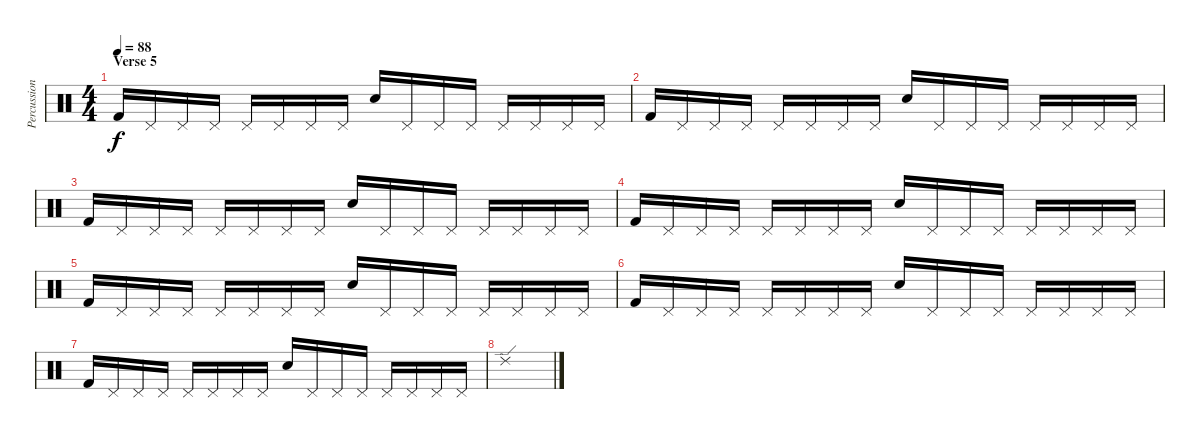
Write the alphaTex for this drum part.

\track ("Percussion" "Percussion") {instrument percussion}
\staff {score}
\articulation defaults
\ts (4 4)
\section ("" "Verse 5")
\tempo 88
\clef neutral
\ks c "Kick (hit) 2".16{dy f} "Pedal Hi-Hat (hit)".16 "Pedal Hi-Hat (hit)".16 "Pedal Hi-Hat (hit)".16 "Pedal Hi-Hat (hit)".16 "Pedal Hi-Hat (hit)".16 "Pedal Hi-Hat (hit)".16 "Pedal Hi-Hat (hit)".16 "Electric Snare (hit)".16 "Pedal Hi-Hat (hit)".16 "Pedal Hi-Hat (hit)".16 "Pedal Hi-Hat (hit)".16 "Pedal Hi-Hat (hit)".16 "Pedal Hi-Hat (hit)".16 "Pedal Hi-Hat (hit)".16 "Pedal Hi-Hat (hit)".16
|
"Kick (hit) 2".16 "Pedal Hi-Hat (hit)".16 "Pedal Hi-Hat (hit)".16 "Pedal Hi-Hat (hit)".16 "Pedal Hi-Hat (hit)".16 "Pedal Hi-Hat (hit)".16 "Pedal Hi-Hat (hit)".16 "Pedal Hi-Hat (hit)".16 "Electric Snare (hit)".16 "Pedal Hi-Hat (hit)".16 "Pedal Hi-Hat (hit)".16 "Pedal Hi-Hat (hit)".16 "Pedal Hi-Hat (hit)".16 "Pedal Hi-Hat (hit)".16 "Pedal Hi-Hat (hit)".16 "Pedal Hi-Hat (hit)".16 |
"Kick (hit) 2".16 "Pedal Hi-Hat (hit)".16 "Pedal Hi-Hat (hit)".16 "Pedal Hi-Hat (hit)".16 "Pedal Hi-Hat (hit)".16 "Pedal Hi-Hat (hit)".16 "Pedal Hi-Hat (hit)".16 "Pedal Hi-Hat (hit)".16 "Electric Snare (hit)".16 "Pedal Hi-Hat (hit)".16 "Pedal Hi-Hat (hit)".16 "Pedal Hi-Hat (hit)".16 "Pedal Hi-Hat (hit)".16 "Pedal Hi-Hat (hit)".16 "Pedal Hi-Hat (hit)".16 "Pedal Hi-Hat (hit)".16 |
"Kick (hit) 2".16 "Pedal Hi-Hat (hit)".16 "Pedal Hi-Hat (hit)".16 "Pedal Hi-Hat (hit)".16 "Pedal Hi-Hat (hit)".16 "Pedal Hi-Hat (hit)".16 "Pedal Hi-Hat (hit)".16 "Pedal Hi-Hat (hit)".16 "Electric Snare (hit)".16 "Pedal Hi-Hat (hit)".16 "Pedal Hi-Hat (hit)".16 "Pedal Hi-Hat (hit)".16 "Pedal Hi-Hat (hit)".16 "Pedal Hi-Hat (hit)".16 "Pedal Hi-Hat (hit)".16 "Pedal Hi-Hat (hit)".16 |
"Kick (hit) 2".16 "Pedal Hi-Hat (hit)".16 "Pedal Hi-Hat (hit)".16 "Pedal Hi-Hat (hit)".16 "Pedal Hi-Hat (hit)".16 "Pedal Hi-Hat (hit)".16 "Pedal Hi-Hat (hit)".16 "Pedal Hi-Hat (hit)".16 "Electric Snare (hit)".16 "Pedal Hi-Hat (hit)".16 "Pedal Hi-Hat (hit)".16 "Pedal Hi-Hat (hit)".16 "Pedal Hi-Hat (hit)".16 "Pedal Hi-Hat (hit)".16 "Pedal Hi-Hat (hit)".16 "Pedal Hi-Hat (hit)".16 |
"Kick (hit) 2".16 "Pedal Hi-Hat (hit)".16 "Pedal Hi-Hat (hit)".16 "Pedal Hi-Hat (hit)".16 "Pedal Hi-Hat (hit)".16 "Pedal Hi-Hat (hit)".16 "Pedal Hi-Hat (hit)".16 "Pedal Hi-Hat (hit)".16 "Electric Snare (hit)".16 "Pedal Hi-Hat (hit)".16 "Pedal Hi-Hat (hit)".16 "Pedal Hi-Hat (hit)".16 "Pedal Hi-Hat (hit)".16 "Pedal Hi-Hat (hit)".16 "Pedal Hi-Hat (hit)".16 "Pedal Hi-Hat (hit)".16 |
"Kick (hit) 2".16 "Pedal Hi-Hat (hit)".16 "Pedal Hi-Hat (hit)".16 "Pedal Hi-Hat (hit)".16 "Pedal Hi-Hat (hit)".16 "Pedal Hi-Hat (hit)".16 "Pedal Hi-Hat (hit)".16 "Pedal Hi-Hat (hit)".16 "Electric Snare (hit)".16 "Pedal Hi-Hat (hit)".16 "Pedal Hi-Hat (hit)".16 "Pedal Hi-Hat (hit)".16 "Pedal Hi-Hat (hit)".16 "Pedal Hi-Hat (hit)".16 "Pedal Hi-Hat (hit)".16 "Pedal Hi-Hat (hit)".16 |
"Ride (edge) 2".1
